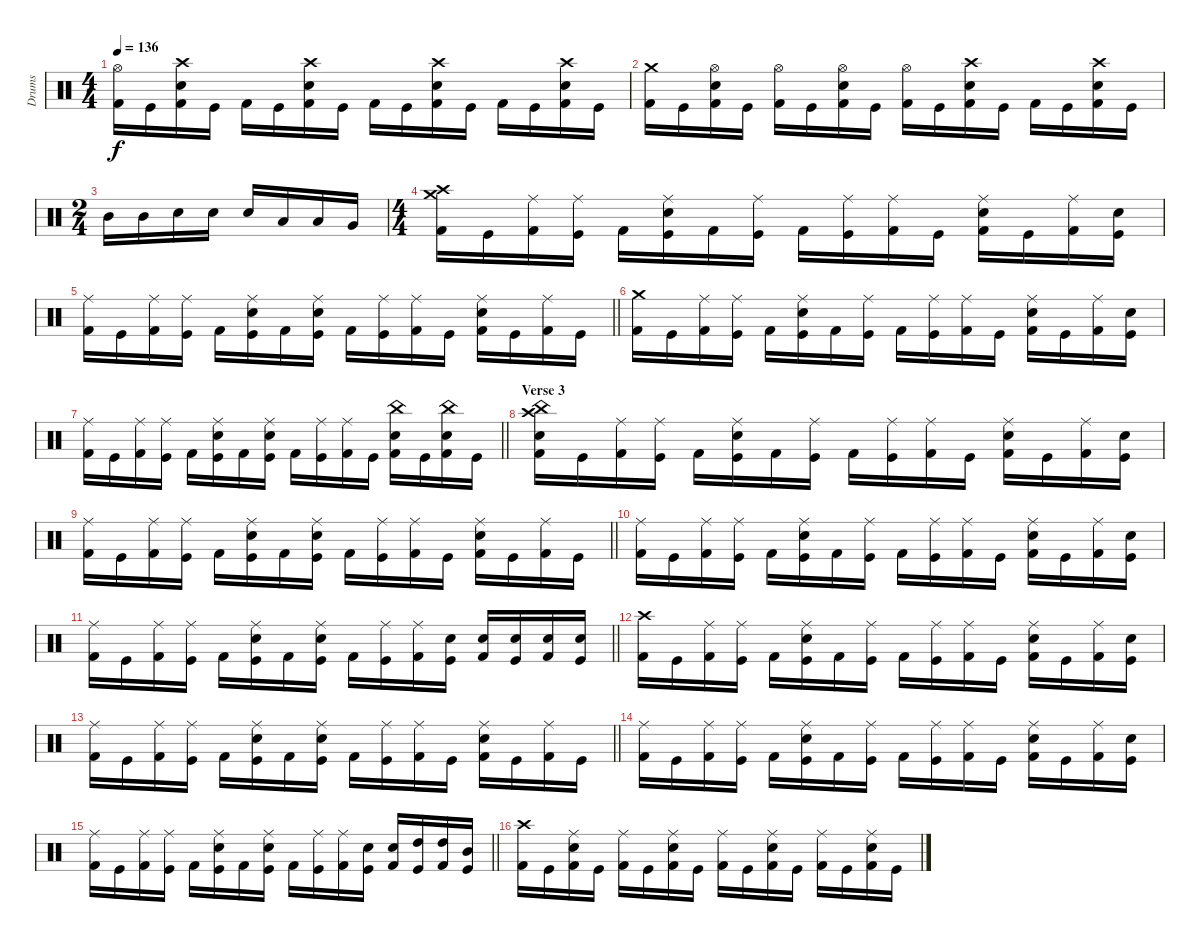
\track ("Drums" "Drums") {instrument percussion}
\staff {score}
\articulation defaults
\ts (4 4)
\tempo 136
\clef neutral
\ks c
("Kick (hit) 2" "Hi-Hat (open)").16{dy f} "Kick (hit)".16 ("Kick (hit) 2" "Snare (hit) 2" "Crash high (hit)").16 "Kick (hit)".16 "Kick (hit) 2".16 "Kick (hit)".16 ("Kick (hit) 2" "Snare (hit) 2" "Crash high (hit)").16 "Kick (hit)".16 "Kick (hit) 2".16 "Kick (hit)".16 ("Kick (hit) 2" "Snare (hit) 2" "Crash high (hit)").16 "Kick (hit)".16 "Kick (hit) 2".16 "Kick (hit)".16 ("Kick (hit) 2" "Snare (hit) 2" "Crash high (hit)").16 "Kick (hit)".16 |
("Kick (hit) 2" "Crash medium (hit)").16 "Kick (hit)".16 ("Kick (hit) 2" "Snare (hit) 2" "Hi-Hat (open)").16 "Kick (hit)".16 ("Kick (hit) 2" "Hi-Hat (open)").16 "Kick (hit)".16 ("Kick (hit) 2" "Snare (hit) 2" "Hi-Hat (open)").16 "Kick (hit)".16 ("Kick (hit) 2" "Hi-Hat (open)").16 "Kick (hit)".16 ("Kick (hit) 2" "Snare (hit) 2" "Crash high (hit)").16 "Kick (hit)".16 "Kick (hit) 2".16 "Kick (hit)".16 ("Kick (hit) 2" "Snare (hit) 2" "Crash high (hit)").16 "Kick (hit)".16 |
\ts (2 4)
"Mid Tom (hit)".16 "Mid Tom (hit)".16 "Snare (hit) 2".16 "Snare (hit) 2".16 "Snare (hit) 2".16 "Low Tom (hit)".16 "Low Tom (hit)".16 "Very Low Tom (hit)".16 |
\ts (4 4)
("Kick (hit) 2" "Crash high (hit)" "Crash medium (hit)").16 "Kick (hit)".16 ("Kick (hit) 2" "Ride (middle)").16 ("Kick (hit)" "Ride (middle)").16 "Kick (hit) 2".16 ("Kick (hit)" "Snare (hit) 2" "Ride (middle)").16 "Kick (hit) 2".16 ("Kick (hit)" "Ride (middle)").16 "Kick (hit) 2".16 ("Kick (hit)" "Ride (middle)").16 ("Kick (hit) 2" "Ride (middle)").16 "Kick (hit)".16 ("Kick (hit) 2" "Snare (hit) 2" "Ride (middle)").16 "Kick (hit)".16 ("Kick (hit) 2" "Ride (middle)").16 ("Kick (hit)" "Snare (hit) 2").16 |
\barLineRight lightlight
("Kick (hit) 2" "Ride (middle)").16 "Kick (hit)".16 ("Kick (hit) 2" "Ride (middle)").16 ("Kick (hit)" "Ride (middle)").16 "Kick (hit) 2".16 ("Kick (hit)" "Snare (hit) 2" "Ride (middle)").16 "Kick (hit) 2".16 ("Kick (hit)" "Snare (hit) 2" "Ride (middle)").16 "Kick (hit) 2".16 ("Kick (hit)" "Ride (middle)").16 ("Kick (hit) 2" "Ride (middle)").16 "Kick (hit)".16 ("Kick (hit) 2" "Snare (hit) 2" "Ride (middle)").16 "Kick (hit)".16 ("Kick (hit) 2" "Ride (middle)").16 "Kick (hit)".16 |
("Kick (hit) 2" "Crash medium (hit)").16 "Kick (hit)".16 ("Kick (hit) 2" "Ride (middle)").16 ("Kick (hit)" "Ride (middle)").16 "Kick (hit) 2".16 ("Kick (hit)" "Snare (hit) 2" "Ride (middle)").16 "Kick (hit) 2".16 ("Kick (hit)" "Ride (middle)").16 "Kick (hit) 2".16 ("Kick (hit)" "Ride (middle)").16 ("Kick (hit) 2" "Ride (middle)").16 "Kick (hit)".16 ("Kick (hit) 2" "Snare (hit) 2" "Ride (middle)").16 "Kick (hit)".16 ("Kick (hit) 2" "Ride (middle)").16 ("Kick (hit)" "Snare (hit) 2").16 |
\barLineRight lightlight
("Kick (hit) 2" "Ride (middle)").16 "Kick (hit)".16 ("Kick (hit) 2" "Ride (middle)").16 ("Kick (hit)" "Ride (middle)").16 "Kick (hit) 2".16 ("Kick (hit)" "Snare (hit) 2" "Ride (middle)").16 "Kick (hit) 2".16 ("Kick (hit)" "Snare (hit) 2" "Ride (middle)").16 "Kick (hit) 2".16 ("Kick (hit)" "Ride (middle)").16 ("Kick (hit) 2" "Ride (middle)").16 "Kick (hit)".16 ("Kick (hit) 2" "Snare (hit) 2" "China (hit)").16 "Kick (hit)".16 ("Kick (hit) 2" "Snare (hit) 2" "China (hit)").16 "Kick (hit)".16 |
\section ("" "Verse 3")
("Kick (hit) 2" "Snare (hit) 2" "Crash high (hit)" "China (hit)").16 "Kick (hit)".16 ("Kick (hit) 2" "Ride (middle)").16 ("Kick (hit)" "Ride (middle)").16 "Kick (hit) 2".16 ("Kick (hit)" "Snare (hit) 2" "Ride (middle)").16 "Kick (hit) 2".16 ("Kick (hit)" "Ride (middle)").16 "Kick (hit) 2".16 ("Kick (hit)" "Ride (middle)").16 ("Kick (hit) 2" "Ride (middle)").16 "Kick (hit)".16 ("Kick (hit) 2" "Snare (hit) 2" "Ride (middle)").16 "Kick (hit)".16 ("Kick (hit) 2" "Ride (middle)").16 ("Kick (hit)" "Snare (hit) 2").16 |
\barLineRight lightlight
("Kick (hit) 2" "Ride (middle)").16 "Kick (hit)".16 ("Kick (hit) 2" "Ride (middle)").16 ("Kick (hit)" "Ride (middle)").16 "Kick (hit) 2".16 ("Kick (hit)" "Snare (hit) 2" "Ride (middle)").16 "Kick (hit) 2".16 ("Kick (hit)" "Snare (hit) 2" "Ride (middle)").16 "Kick (hit) 2".16 ("Kick (hit)" "Ride (middle)").16 ("Kick (hit) 2" "Ride (middle)").16 "Kick (hit)".16 ("Kick (hit) 2" "Snare (hit) 2" "Ride (middle)").16 "Kick (hit)".16 ("Kick (hit) 2" "Ride (middle)").16 "Kick (hit)".16 |
("Kick (hit) 2" "Ride (middle)").16 "Kick (hit)".16 ("Kick (hit) 2" "Ride (middle)").16 ("Kick (hit)" "Ride (middle)").16 "Kick (hit) 2".16 ("Kick (hit)" "Snare (hit) 2" "Ride (middle)").16 "Kick (hit) 2".16 ("Kick (hit)" "Ride (middle)").16 "Kick (hit) 2".16 ("Kick (hit)" "Ride (middle)").16 ("Kick (hit) 2" "Ride (middle)").16 "Kick (hit)".16 ("Kick (hit) 2" "Snare (hit) 2" "Ride (middle)").16 "Kick (hit)".16 ("Kick (hit) 2" "Ride (middle)").16 ("Kick (hit)" "Snare (hit) 2").16 |
\barLineRight lightlight
("Kick (hit) 2" "Ride (middle)").16 "Kick (hit)".16 ("Kick (hit) 2" "Ride (middle)").16 ("Kick (hit)" "Ride (middle)").16 "Kick (hit) 2".16 ("Kick (hit)" "Snare (hit) 2" "Ride (middle)").16 "Kick (hit) 2".16 ("Kick (hit)" "Snare (hit) 2" "Ride (middle)").16 "Kick (hit) 2".16 ("Kick (hit)" "Ride (middle)").16 ("Kick (hit) 2" "Ride (middle)").16 ("Kick (hit)" "Snare (hit) 2").16 ("Kick (hit) 2" "Snare (hit) 2").16 ("Kick (hit)" "Snare (hit) 2").16 ("Kick (hit) 2" "Snare (hit) 2").16 ("Kick (hit)" "Snare (hit) 2").16 |
("Kick (hit) 2" "Crash high (hit)").16 "Kick (hit)".16 ("Kick (hit) 2" "Ride (middle)").16 ("Kick (hit)" "Ride (middle)").16 "Kick (hit) 2".16 ("Kick (hit)" "Snare (hit) 2" "Ride (middle)").16 "Kick (hit) 2".16 ("Kick (hit)" "Ride (middle)").16 "Kick (hit) 2".16 ("Kick (hit)" "Ride (middle)").16 ("Kick (hit) 2" "Ride (middle)").16 "Kick (hit)".16 ("Kick (hit) 2" "Snare (hit) 2" "Ride (middle)").16 "Kick (hit)".16 ("Kick (hit) 2" "Ride (middle)").16 ("Kick (hit)" "Snare (hit) 2").16 |
\barLineRight lightlight
("Kick (hit) 2" "Ride (middle)").16 "Kick (hit)".16 ("Kick (hit) 2" "Ride (middle)").16 ("Kick (hit)" "Ride (middle)").16 "Kick (hit) 2".16 ("Kick (hit)" "Snare (hit) 2" "Ride (middle)").16 "Kick (hit) 2".16 ("Kick (hit)" "Snare (hit) 2" "Ride (middle)").16 "Kick (hit) 2".16 ("Kick (hit)" "Ride (middle)").16 ("Kick (hit) 2" "Ride (middle)").16 "Kick (hit)".16 ("Kick (hit) 2" "Snare (hit) 2" "Ride (middle)").16 "Kick (hit)".16 ("Kick (hit) 2" "Ride (middle)").16 "Kick (hit)".16 |
("Kick (hit) 2" "Ride (middle)").16 "Kick (hit)".16 ("Kick (hit) 2" "Ride (middle)").16 ("Kick (hit)" "Ride (middle)").16 "Kick (hit) 2".16 ("Kick (hit)" "Snare (hit) 2" "Ride (middle)").16 "Kick (hit) 2".16 ("Kick (hit)" "Ride (middle)").16 "Kick (hit) 2".16 ("Kick (hit)" "Ride (middle)").16 ("Kick (hit) 2" "Ride (middle)").16 "Kick (hit)".16 ("Kick (hit) 2" "Snare (hit) 2" "Ride (middle)").16 "Kick (hit)".16 ("Kick (hit) 2" "Ride (middle)").16 ("Kick (hit)" "Snare (hit) 2").16 |
\barLineRight lightlight
("Kick (hit) 2" "Ride (middle)").16 "Kick (hit)".16 ("Kick (hit) 2" "Ride (middle)").16 ("Kick (hit)" "Ride (middle)").16 "Kick (hit) 2".16 ("Kick (hit)" "Snare (hit) 2" "Ride (middle)").16 "Kick (hit) 2".16 ("Kick (hit)" "Snare (hit) 2" "Ride (middle)").16 "Kick (hit) 2".16 ("Kick (hit)" "Ride (middle)").16 ("Kick (hit) 2" "Ride (middle)").16 ("Kick (hit)" "Snare (hit) 2").16 ("Kick (hit) 2" "Snare (hit) 2").16 ("Kick (hit)" "High Tom (hit)").16 ("Kick (hit) 2" "High Tom (hit)").16 ("Kick (hit)" "Mid Tom (hit)").16 |
("Kick (hit) 2" "Crash high (hit)").16 "Kick (hit)".16 ("Kick (hit) 2" "Snare (hit) 2" "Ride (middle)").16 "Kick (hit)".16 ("Kick (hit) 2" "Ride (middle)").16 "Kick (hit)".16 ("Kick (hit) 2" "Snare (hit) 2" "Ride (middle)").16 "Kick (hit)".16 ("Kick (hit) 2" "Ride (middle)").16 "Kick (hit)".16 ("Kick (hit) 2" "Snare (hit) 2" "Ride (middle)").16 "Kick (hit)".16 ("Kick (hit) 2" "Ride (middle)").16 "Kick (hit)".16 ("Kick (hit) 2" "Snare (hit) 2" "Ride (middle)").16 "Kick (hit)".16
